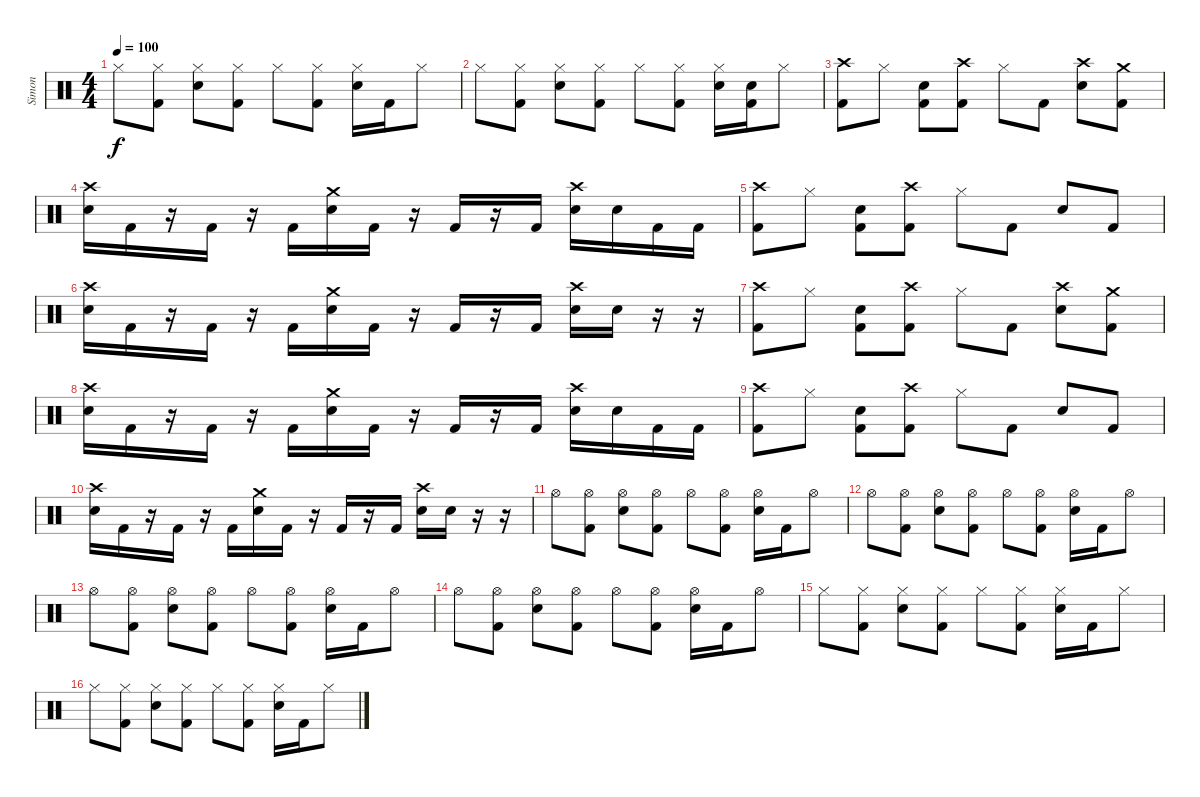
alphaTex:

\track ("Simon" "Simon") {instrument percussion}
\staff {score}
\articulation defaults
\ts (4 4)
\tempo 100
\clef neutral
\ks c "Hi-Hat (closed)".8{dy f}
("Hi-Hat (closed)" "Kick (hit) 2").8 ("Hi-Hat (closed)" "Snare (hit) 2").8 ("Hi-Hat (closed)" "Kick (hit) 2").8 "Hi-Hat (closed)".8 ("Hi-Hat (closed)" "Kick (hit) 2").8 ("Hi-Hat (closed)" "Snare (hit) 2").16 "Kick (hit) 2".16 "Hi-Hat (closed)".8 |
"Hi-Hat (closed)".8 ("Hi-Hat (closed)" "Kick (hit) 2").8 ("Hi-Hat (closed)" "Snare (hit) 2").8 ("Hi-Hat (closed)" "Kick (hit) 2").8 "Hi-Hat (closed)".8 ("Hi-Hat (closed)" "Kick (hit) 2").8 ("Hi-Hat (closed)" "Snare (hit) 2").16 ("Snare (hit) 2" "Kick (hit) 2").16 "Hi-Hat (closed)".8 |
("Crash high (hit)" "Kick (hit) 2").8 "Hi-Hat (closed)".8 ("Snare (hit) 2" "Kick (hit) 2").8 ("Crash high (hit)" "Kick (hit) 2").8 "Hi-Hat (closed)".8 "Kick (hit) 2".8 ("Crash high (hit)" "Snare (hit) 2").8 ("Crash medium (hit)" "Kick (hit) 2").8 |
("Crash high (hit)" "Snare (hit) 2").16 "Kick (hit) 2".16 r.16 "Kick (hit) 2".16 r.16 "Kick (hit) 2".16 ("Crash medium (hit)" "Snare (hit) 2").16 "Kick (hit) 2".16 r.16 "Kick (hit) 2".16 r.16 "Kick (hit) 2".16 ("Crash high (hit)" "Snare (hit) 2").16 "Snare (hit) 2".16 "Kick (hit) 2".16 "Kick (hit) 2".16 |
("Crash high (hit)" "Kick (hit) 2").8 "Hi-Hat (closed)".8 ("Snare (hit) 2" "Kick (hit) 2").8 ("Crash high (hit)" "Kick (hit) 2").8 "Hi-Hat (closed)".8 "Kick (hit) 2".8 "Snare (hit) 2".8 "Kick (hit) 2".8 |
("Crash high (hit)" "Snare (hit) 2").16 "Kick (hit) 2".16 r.16 "Kick (hit) 2".16 r.16 "Kick (hit) 2".16 ("Crash medium (hit)" "Snare (hit) 2").16 "Kick (hit) 2".16 r.16 "Kick (hit) 2".16 r.16 "Kick (hit) 2".16 ("Crash high (hit)" "Snare (hit) 2").16 "Snare (hit) 2".16 r.16 r.16 |
("Crash high (hit)" "Kick (hit) 2").8 "Hi-Hat (closed)".8 ("Snare (hit) 2" "Kick (hit) 2").8 ("Crash high (hit)" "Kick (hit) 2").8 "Hi-Hat (closed)".8 "Kick (hit) 2".8 ("Crash high (hit)" "Snare (hit) 2").8 ("Crash medium (hit)" "Kick (hit) 2").8 |
("Crash high (hit)" "Snare (hit) 2").16 "Kick (hit) 2".16 r.16 "Kick (hit) 2".16 r.16 "Kick (hit) 2".16 ("Crash medium (hit)" "Snare (hit) 2").16 "Kick (hit) 2".16 r.16 "Kick (hit) 2".16 r.16 "Kick (hit) 2".16 ("Crash high (hit)" "Snare (hit) 2").16 "Snare (hit) 2".16 "Kick (hit) 2".16 "Kick (hit) 2".16 |
("Crash high (hit)" "Kick (hit) 2").8 "Hi-Hat (closed)".8 ("Snare (hit) 2" "Kick (hit) 2").8 ("Crash high (hit)" "Kick (hit) 2").8 "Hi-Hat (closed)".8 "Kick (hit) 2".8 "Snare (hit) 2".8 "Kick (hit) 2".8 |
("Crash high (hit)" "Snare (hit) 2").16 "Kick (hit) 2".16 r.16 "Kick (hit) 2".16 r.16 "Kick (hit) 2".16 ("Crash medium (hit)" "Snare (hit) 2").16 "Kick (hit) 2".16 r.16 "Kick (hit) 2".16 r.16 "Kick (hit) 2".16 ("Crash high (hit)" "Snare (hit) 2").16 "Snare (hit) 2".16 r.16 r.16 |
"Hi-Hat (open)".8 ("Hi-Hat (open)" "Kick (hit) 2").8 ("Hi-Hat (open)" "Snare (hit) 2").8 ("Hi-Hat (open)" "Kick (hit) 2").8 "Hi-Hat (open)".8 ("Hi-Hat (open)" "Kick (hit) 2").8 ("Hi-Hat (open)" "Snare (hit) 2").16 "Kick (hit) 2".16 "Hi-Hat (open)".8 |
"Hi-Hat (open)".8 ("Hi-Hat (open)" "Kick (hit) 2").8 ("Hi-Hat (open)" "Snare (hit) 2").8 ("Hi-Hat (open)" "Kick (hit) 2").8 "Hi-Hat (open)".8 ("Hi-Hat (open)" "Kick (hit) 2").8 ("Hi-Hat (open)" "Snare (hit) 2").16 "Kick (hit) 2".16 "Hi-Hat (open)".8 |
"Hi-Hat (open)".8 ("Hi-Hat (open)" "Kick (hit) 2").8 ("Hi-Hat (open)" "Snare (hit) 2").8 ("Hi-Hat (open)" "Kick (hit) 2").8 "Hi-Hat (open)".8 ("Hi-Hat (open)" "Kick (hit) 2").8 ("Hi-Hat (open)" "Snare (hit) 2").16 "Kick (hit) 2".16 "Hi-Hat (open)".8 |
"Hi-Hat (open)".8 ("Hi-Hat (open)" "Kick (hit) 2").8 ("Hi-Hat (open)" "Snare (hit) 2").8 ("Hi-Hat (open)" "Kick (hit) 2").8 "Hi-Hat (open)".8 ("Hi-Hat (open)" "Kick (hit) 2").8 ("Hi-Hat (open)" "Snare (hit) 2").16 "Kick (hit) 2".16 "Hi-Hat (open)".8 |
"Hi-Hat (closed)".8 ("Hi-Hat (closed)" "Kick (hit) 2").8 ("Hi-Hat (closed)" "Snare (hit) 2").8 ("Hi-Hat (closed)" "Kick (hit) 2").8 "Hi-Hat (closed)".8 ("Hi-Hat (closed)" "Kick (hit) 2").8 ("Hi-Hat (closed)" "Snare (hit) 2").16 "Kick (hit) 2".16 "Hi-Hat (closed)".8 |
"Hi-Hat (closed)".8 ("Hi-Hat (closed)" "Kick (hit) 2").8 ("Hi-Hat (closed)" "Snare (hit) 2").8 ("Hi-Hat (closed)" "Kick (hit) 2").8 "Hi-Hat (closed)".8 ("Hi-Hat (closed)" "Kick (hit) 2").8 ("Hi-Hat (closed)" "Snare (hit) 2").16 "Kick (hit) 2".16 "Hi-Hat (closed)".8
